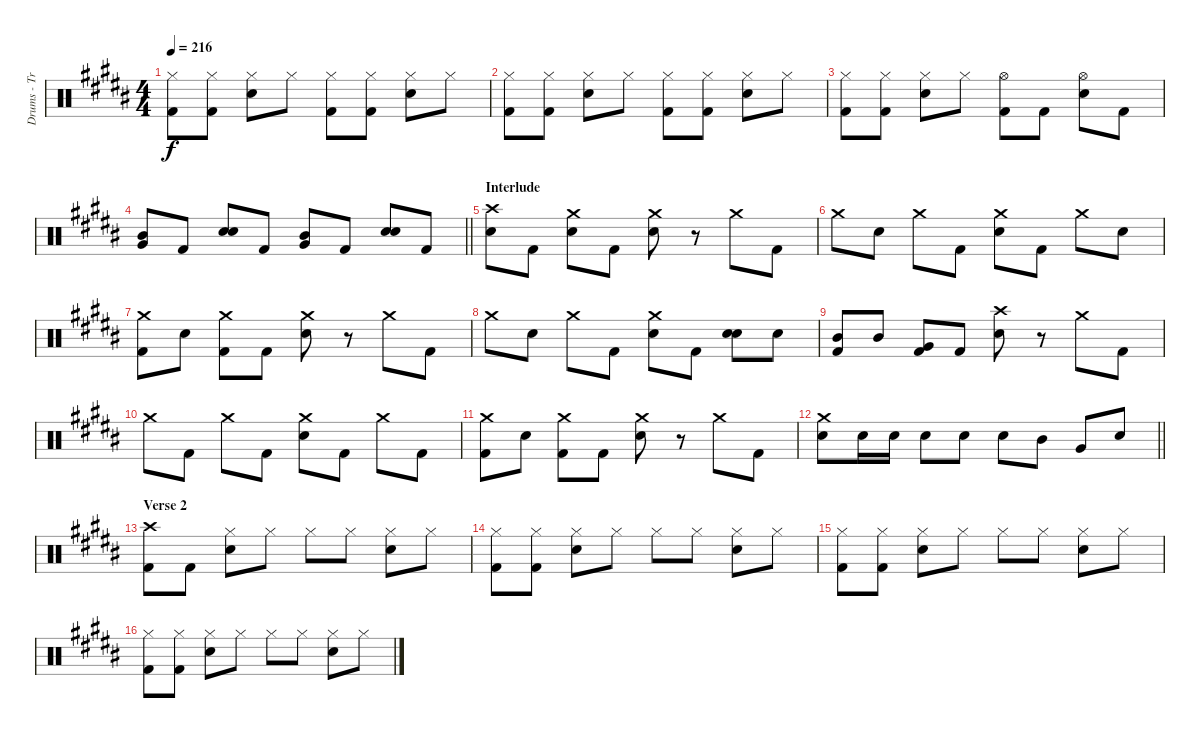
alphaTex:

\track ("Drums - Travis Barker" "Drums - Tr") {instrument percussion}
\staff {score}
\articulation defaults
\ts (4 4)
\tempo 216
\clef neutral
\ks b
("Kick (hit) 2" "Hi-Hat (closed)").8{dy f} ("Kick (hit) 2" "Hi-Hat (closed)").8 ("Snare (hit) 2" "Hi-Hat (closed)").8 "Hi-Hat (closed)".8 ("Kick (hit) 2" "Hi-Hat (closed)").8 ("Kick (hit) 2" "Hi-Hat (closed)").8 ("Snare (hit) 2" "Hi-Hat (closed)").8 "Hi-Hat (closed)".8 |
("Kick (hit) 2" "Hi-Hat (closed)").8 ("Kick (hit) 2" "Hi-Hat (closed)").8 ("Snare (hit) 2" "Hi-Hat (closed)").8 "Hi-Hat (closed)".8 ("Kick (hit) 2" "Hi-Hat (closed)").8 ("Kick (hit) 2" "Hi-Hat (closed)").8 ("Snare (hit) 2" "Hi-Hat (closed)").8 "Hi-Hat (closed)".8 |
("Kick (hit) 2" "Hi-Hat (closed)").8 ("Kick (hit) 2" "Hi-Hat (closed)").8 ("Snare (hit) 2" "Hi-Hat (closed)").8 "Hi-Hat (closed)".8 ("Kick (hit) 2" "Hi-Hat (open)").8 "Kick (hit) 2".8 ("Snare (hit) 2" "Hi-Hat (open)").8 "Kick (hit) 2".8 |
\barLineRight lightlight
("Mid Tom (hit)" "Very Low Tom (hit)").8 "Kick (hit) 2".8 ("Snare (hit) 2" "Snare (hit) 2").8 "Kick (hit) 2".8 ("Mid Tom (hit)" "Very Low Tom (hit)").8 "Kick (hit) 2".8 ("Snare (hit) 2" "Snare (hit) 2").8 "Kick (hit) 2".8 |
\section ("" "Interlude")
("Snare (hit) 2" "Crash high (hit)").8 "Kick (hit) 2".8 ("Snare (hit) 2" "Crash medium (hit)").8 "Kick (hit) 2".8 ("Snare (hit) 2" "Crash medium (hit)").8 r.8 "Crash medium (hit)".8 "Kick (hit) 2".8 |
"Crash medium (hit)".8 "Snare (hit) 2".8 "Crash medium (hit)".8 "Kick (hit) 2".8 ("Snare (hit) 2" "Crash medium (hit)").8 "Kick (hit) 2".8 "Crash medium (hit)".8 "Snare (hit) 2".8 |
("Kick (hit) 2" "Crash medium (hit)").8 "Snare (hit) 2".8 ("Kick (hit) 2" "Crash medium (hit)").8 "Kick (hit) 2".8 ("Snare (hit) 2" "Crash medium (hit)").8 r.8 "Crash medium (hit)".8 "Kick (hit) 2".8 |
"Crash medium (hit)".8 "Snare (hit) 2".8 "Crash medium (hit)".8 "Kick (hit) 2".8 ("Snare (hit) 2" "Crash medium (hit)").8 "Kick (hit) 2".8 ("Snare (hit) 2" "Snare (hit) 2").8 "Snare (hit) 2".8 |
("Kick (hit) 2" "Mid Tom (hit)").8 "Mid Tom (hit)".8 ("Kick (hit) 2" "Very Low Tom (hit)").8 "Kick (hit) 2".8 ("Snare (hit) 2" "Crash high (hit)").8 r.8 "Crash medium (hit)".8 "Kick (hit) 2".8 |
"Crash medium (hit)".8 "Kick (hit) 2".8 "Crash medium (hit)".8 "Kick (hit) 2".8 ("Snare (hit) 2" "Crash medium (hit)").8 "Kick (hit) 2".8 "Crash medium (hit)".8 "Kick (hit) 2".8 |
("Kick (hit) 2" "Crash medium (hit)").8 "Snare (hit) 2".8 ("Kick (hit) 2" "Crash medium (hit)").8 "Kick (hit) 2".8 ("Snare (hit) 2" "Crash medium (hit)").8 r.8 "Crash medium (hit)".8 "Kick (hit) 2".8 |
\barLineRight lightlight
("Snare (hit) 2" "Crash medium (hit)").8 "Snare (hit) 2".16 "Snare (hit) 2".16 "Snare (hit) 2".8 "Snare (hit) 2".8 "Snare (hit) 2".8 "Mid Tom (hit)".8 "Very Low Tom (hit)".8 "Snare (hit) 2".8 |
\section ("" "Verse 2")
("Kick (hit) 2" "Crash high (hit)").8 "Kick (hit) 2".8 ("Snare (hit) 2" "Hi-Hat (closed)").8 "Hi-Hat (closed)".8 "Hi-Hat (closed)".8 "Hi-Hat (closed)".8 ("Snare (hit) 2" "Hi-Hat (closed)").8 "Hi-Hat (closed)".8 |
("Kick (hit) 2" "Hi-Hat (closed)").8 ("Kick (hit) 2" "Hi-Hat (closed)").8 ("Snare (hit) 2" "Hi-Hat (closed)").8 "Hi-Hat (closed)".8 "Hi-Hat (closed)".8 "Hi-Hat (closed)".8 ("Snare (hit) 2" "Hi-Hat (closed)").8 "Hi-Hat (closed)".8 |
("Kick (hit) 2" "Hi-Hat (closed)").8 ("Kick (hit) 2" "Hi-Hat (closed)").8 ("Snare (hit) 2" "Hi-Hat (closed)").8 "Hi-Hat (closed)".8 "Hi-Hat (closed)".8 "Hi-Hat (closed)".8 ("Snare (hit) 2" "Hi-Hat (closed)").8 "Hi-Hat (closed)".8 |
("Kick (hit) 2" "Hi-Hat (closed)").8 ("Kick (hit) 2" "Hi-Hat (closed)").8 ("Snare (hit) 2" "Hi-Hat (closed)").8 "Hi-Hat (closed)".8 "Hi-Hat (closed)".8 "Hi-Hat (closed)".8 ("Snare (hit) 2" "Hi-Hat (closed)").8 "Hi-Hat (closed)".8
